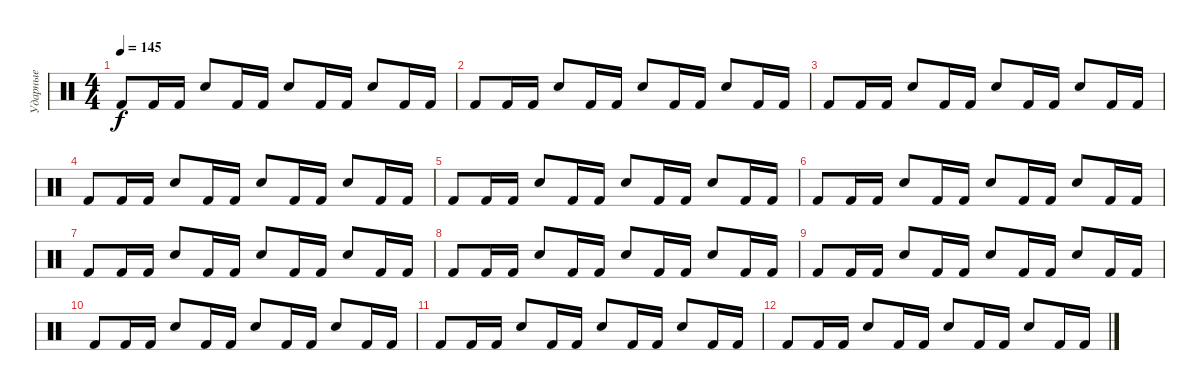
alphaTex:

\track ("Ударные" "Ударные") {instrument percussion}
\staff {score}
\articulation defaults
\ts (4 4)
\tempo 145
\clef neutral
\ks c "Kick (hit) 2".8{dy f} "Kick (hit) 2".16 "Kick (hit) 2".16 "Electric Snare (hit)".8 "Kick (hit) 2".16 "Kick (hit) 2".16 "Electric Snare (hit)".8 "Kick (hit) 2".16 "Kick (hit) 2".16 "Electric Snare (hit)".8 "Kick (hit) 2".16 "Kick (hit) 2".16
|
"Kick (hit) 2".8 "Kick (hit) 2".16 "Kick (hit) 2".16 "Electric Snare (hit)".8 "Kick (hit) 2".16 "Kick (hit) 2".16 "Electric Snare (hit)".8 "Kick (hit) 2".16 "Kick (hit) 2".16 "Electric Snare (hit)".8 "Kick (hit) 2".16 "Kick (hit) 2".16 |
"Kick (hit) 2".8 "Kick (hit) 2".16 "Kick (hit) 2".16 "Electric Snare (hit)".8 "Kick (hit) 2".16 "Kick (hit) 2".16 "Electric Snare (hit)".8 "Kick (hit) 2".16 "Kick (hit) 2".16 "Electric Snare (hit)".8 "Kick (hit) 2".16 "Kick (hit) 2".16 |
"Kick (hit) 2".8 "Kick (hit) 2".16 "Kick (hit) 2".16 "Electric Snare (hit)".8 "Kick (hit) 2".16 "Kick (hit) 2".16 "Electric Snare (hit)".8 "Kick (hit) 2".16 "Kick (hit) 2".16 "Electric Snare (hit)".8 "Kick (hit) 2".16 "Kick (hit) 2".16 |
"Kick (hit) 2".8 "Kick (hit) 2".16 "Kick (hit) 2".16 "Electric Snare (hit)".8 "Kick (hit) 2".16 "Kick (hit) 2".16 "Electric Snare (hit)".8 "Kick (hit) 2".16 "Kick (hit) 2".16 "Electric Snare (hit)".8 "Kick (hit) 2".16 "Kick (hit) 2".16 |
"Kick (hit) 2".8 "Kick (hit) 2".16 "Kick (hit) 2".16 "Electric Snare (hit)".8 "Kick (hit) 2".16 "Kick (hit) 2".16 "Electric Snare (hit)".8 "Kick (hit) 2".16 "Kick (hit) 2".16 "Electric Snare (hit)".8 "Kick (hit) 2".16 "Kick (hit) 2".16 |
"Kick (hit) 2".8 "Kick (hit) 2".16 "Kick (hit) 2".16 "Electric Snare (hit)".8 "Kick (hit) 2".16 "Kick (hit) 2".16 "Electric Snare (hit)".8 "Kick (hit) 2".16 "Kick (hit) 2".16 "Electric Snare (hit)".8 "Kick (hit) 2".16 "Kick (hit) 2".16 |
"Kick (hit) 2".8 "Kick (hit) 2".16 "Kick (hit) 2".16 "Electric Snare (hit)".8 "Kick (hit) 2".16 "Kick (hit) 2".16 "Electric Snare (hit)".8 "Kick (hit) 2".16 "Kick (hit) 2".16 "Electric Snare (hit)".8 "Kick (hit) 2".16 "Kick (hit) 2".16 |
"Kick (hit) 2".8 "Kick (hit) 2".16 "Kick (hit) 2".16 "Electric Snare (hit)".8 "Kick (hit) 2".16 "Kick (hit) 2".16 "Electric Snare (hit)".8 "Kick (hit) 2".16 "Kick (hit) 2".16 "Electric Snare (hit)".8 "Kick (hit) 2".16 "Kick (hit) 2".16 |
"Kick (hit) 2".8 "Kick (hit) 2".16 "Kick (hit) 2".16 "Electric Snare (hit)".8 "Kick (hit) 2".16 "Kick (hit) 2".16 "Electric Snare (hit)".8 "Kick (hit) 2".16 "Kick (hit) 2".16 "Electric Snare (hit)".8 "Kick (hit) 2".16 "Kick (hit) 2".16 |
"Kick (hit) 2".8 "Kick (hit) 2".16 "Kick (hit) 2".16 "Electric Snare (hit)".8 "Kick (hit) 2".16 "Kick (hit) 2".16 "Electric Snare (hit)".8 "Kick (hit) 2".16 "Kick (hit) 2".16 "Electric Snare (hit)".8 "Kick (hit) 2".16 "Kick (hit) 2".16 |
"Kick (hit) 2".8 "Kick (hit) 2".16 "Kick (hit) 2".16 "Electric Snare (hit)".8 "Kick (hit) 2".16 "Kick (hit) 2".16 "Electric Snare (hit)".8 "Kick (hit) 2".16 "Kick (hit) 2".16 "Electric Snare (hit)".8 "Kick (hit) 2".16 "Kick (hit) 2".16
